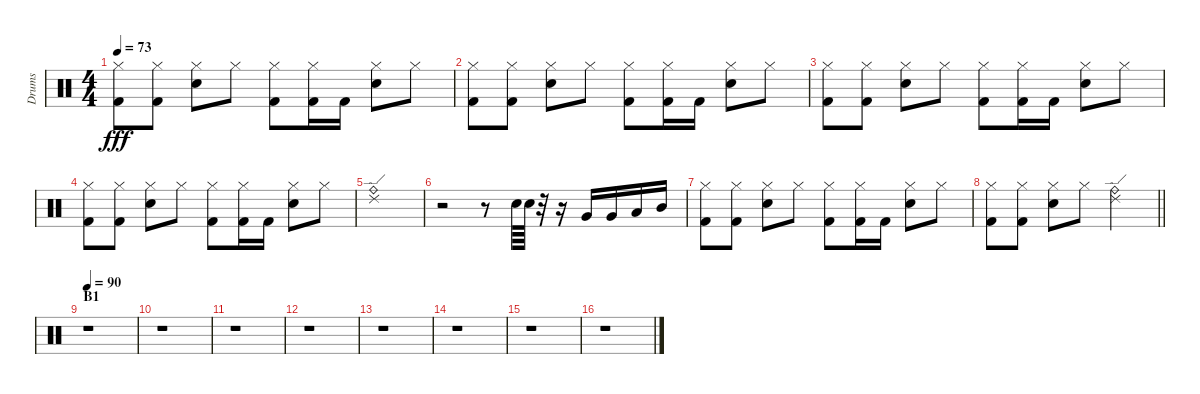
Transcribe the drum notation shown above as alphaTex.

\track ("Drums" "Drums") {instrument percussion}
\staff {score}
\articulation defaults
\ts (4 4)
\tempo 73
\clef neutral
\ks c
("Hi-Hat (closed)" "Kick (hit) 2").8{dy fff} ("Hi-Hat (closed)" "Kick (hit) 2").8 ("Hi-Hat (closed)" "Snare (hit) 2").8 "Hi-Hat (closed)".8 ("Hi-Hat (closed)" "Kick (hit) 2").8 ("Hi-Hat (closed)" "Kick (hit) 2").16 "Kick (hit) 2".16 ("Hi-Hat (closed)" "Snare (hit) 2").8 "Hi-Hat (closed)".8 |
("Hi-Hat (closed)" "Kick (hit) 2").8 ("Hi-Hat (closed)" "Kick (hit) 2").8 ("Hi-Hat (closed)" "Snare (hit) 2").8 "Hi-Hat (closed)".8 ("Hi-Hat (closed)" "Kick (hit) 2").8 ("Hi-Hat (closed)" "Kick (hit) 2").16 "Kick (hit) 2".16 ("Hi-Hat (closed)" "Snare (hit) 2").8 "Hi-Hat (closed)".8 |
("Hi-Hat (closed)" "Kick (hit) 2").8 ("Hi-Hat (closed)" "Kick (hit) 2").8 ("Hi-Hat (closed)" "Snare (hit) 2").8 "Hi-Hat (closed)".8 ("Hi-Hat (closed)" "Kick (hit) 2").8 ("Hi-Hat (closed)" "Kick (hit) 2").16 "Kick (hit) 2".16 ("Hi-Hat (closed)" "Snare (hit) 2").8 "Hi-Hat (closed)".8 |
("Hi-Hat (closed)" "Kick (hit) 2").8 ("Hi-Hat (closed)" "Kick (hit) 2").8 ("Hi-Hat (closed)" "Snare (hit) 2").8 "Hi-Hat (closed)".8 ("Hi-Hat (closed)" "Kick (hit) 2").8 ("Hi-Hat (closed)" "Kick (hit) 2").16 "Kick (hit) 2".16 ("Hi-Hat (closed)" "Snare (hit) 2").8 "Hi-Hat (closed)".8 |
("Ride (edge) 2" "Ride (bell)").1 |
r.2 r.8 "Snare (hit) 2".64 "Snare (hit) 2".64 r.32 r.16 "Very Low Tom (hit)".16 "Very Low Tom (hit)".16 "Low Tom (hit)".16 "Mid Tom (hit)".16 |
("Hi-Hat (closed)" "Kick (hit) 2").8 ("Hi-Hat (closed)" "Kick (hit) 2").8 ("Hi-Hat (closed)" "Snare (hit) 2").8 "Hi-Hat (closed)".8 ("Hi-Hat (closed)" "Kick (hit) 2").8 ("Hi-Hat (closed)" "Kick (hit) 2").16 "Kick (hit) 2".16 ("Hi-Hat (closed)" "Snare (hit) 2").8 "Hi-Hat (closed)".8 |
\barLineRight lightlight
("Hi-Hat (closed)" "Kick (hit) 2").8 ("Hi-Hat (closed)" "Kick (hit) 2").8 ("Hi-Hat (closed)" "Snare (hit) 2").8 "Hi-Hat (closed)".8 ("Ride (edge) 2" "Ride (bell)").2 |
\section ("" "B1")
\tempo 90
r.1 |
r.1 |
r.1 |
r.1 |
r.1 |
r.1 |
r.1 |
r.1
